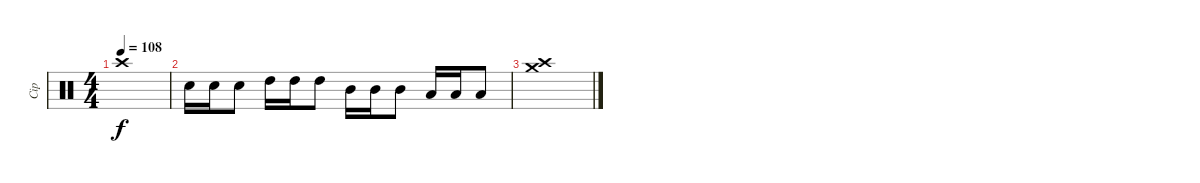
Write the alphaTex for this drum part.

\track ("Cip" "Cip") {instrument percussion}
\staff {score}
\articulation defaults
\ts (4 4)
\tempo 108
\clef neutral
\ks c "Crash high (hit)".1{dy f}
|
"Electric Snare (hit)".16 "Electric Snare (hit)".16 "Electric Snare (hit)".8 "High Tom (hit)".16 "High Tom (hit)".16 "High Tom (hit)".8 "Mid Tom (hit)".16 "Mid Tom (hit)".16 "Mid Tom (hit)".8 "Low Tom (hit)".16 "Low Tom (hit)".16 "Low Tom (hit)".8 |
("Crash high (hit)" "Crash medium (hit)").1{volume 0}
